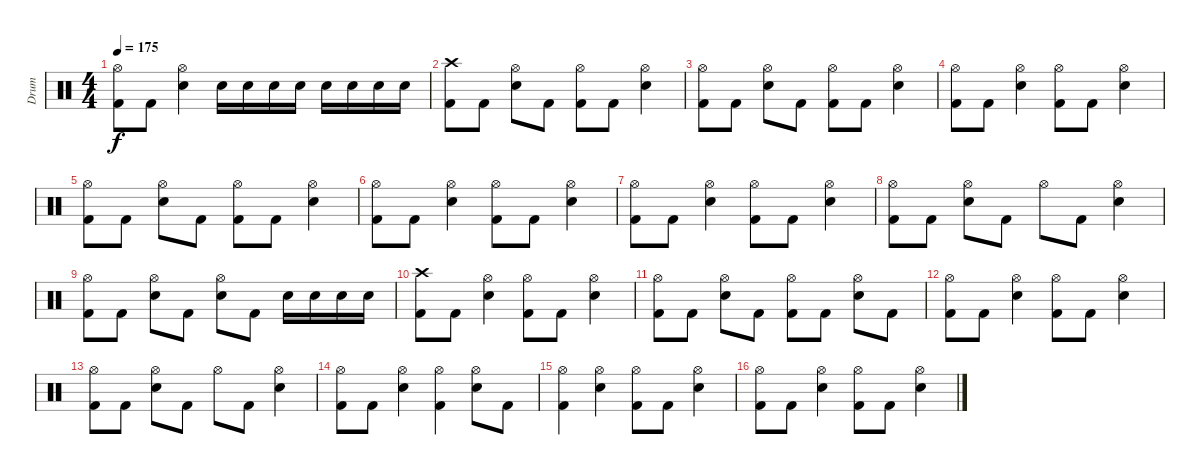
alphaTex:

\track ("Drum" "Drum") {instrument percussion}
\staff {score}
\articulation defaults
\ts (4 4)
\tempo 175
\clef neutral
\ks c
("Hi-Hat (open)" "Kick (hit) 2").8{dy f} "Kick (hit) 2".8 ("Hi-Hat (open)" "Electric Snare (hit)").4 "Electric Snare (hit)".16 "Electric Snare (hit)".16 "Electric Snare (hit)".16 "Electric Snare (hit)".16 "Electric Snare (hit)".16 "Electric Snare (hit)".16 "Electric Snare (hit)".16 "Electric Snare (hit)".16 |
("Crash high (hit)" "Kick (hit) 2").8 "Kick (hit) 2".8 ("Hi-Hat (open)" "Electric Snare (hit)").8 "Kick (hit) 2".8 ("Hi-Hat (open)" "Kick (hit) 2").8 "Kick (hit) 2".8 ("Hi-Hat (open)" "Electric Snare (hit)").4 |
("Hi-Hat (open)" "Kick (hit) 2").8 "Kick (hit) 2".8 ("Hi-Hat (open)" "Electric Snare (hit)").8 "Kick (hit) 2".8 ("Hi-Hat (open)" "Kick (hit) 2").8 "Kick (hit) 2".8 ("Hi-Hat (open)" "Electric Snare (hit)").4 |
("Hi-Hat (open)" "Kick (hit) 2").8 "Kick (hit) 2".8 ("Hi-Hat (open)" "Electric Snare (hit)").4 ("Hi-Hat (open)" "Kick (hit) 2").8 "Kick (hit) 2".8 ("Hi-Hat (open)" "Electric Snare (hit)").4 |
("Hi-Hat (open)" "Kick (hit) 2").8 "Kick (hit) 2".8 ("Hi-Hat (open)" "Electric Snare (hit)").8 "Kick (hit) 2".8 ("Hi-Hat (open)" "Kick (hit) 2").8 "Kick (hit) 2".8 ("Hi-Hat (open)" "Electric Snare (hit)").4 |
("Hi-Hat (open)" "Kick (hit) 2").8 "Kick (hit) 2".8 ("Hi-Hat (open)" "Electric Snare (hit)").4 ("Hi-Hat (open)" "Kick (hit) 2").8 "Kick (hit) 2".8 ("Hi-Hat (open)" "Electric Snare (hit)").4 |
("Hi-Hat (open)" "Kick (hit) 2").8 "Kick (hit) 2".8 ("Hi-Hat (open)" "Electric Snare (hit)").4 ("Hi-Hat (open)" "Kick (hit) 2").8 "Kick (hit) 2".8 ("Hi-Hat (open)" "Electric Snare (hit)").4 |
("Hi-Hat (open)" "Kick (hit) 2").8 "Kick (hit) 2".8 ("Hi-Hat (open)" "Electric Snare (hit)").8 "Kick (hit) 2".8 "Hi-Hat (open)".8 "Kick (hit) 2".8 ("Hi-Hat (open)" "Electric Snare (hit)").4 |
("Hi-Hat (open)" "Kick (hit) 2").8 "Kick (hit) 2".8 ("Hi-Hat (open)" "Electric Snare (hit)").8 "Kick (hit) 2".8 ("Hi-Hat (open)" "Electric Snare (hit)").8 "Kick (hit) 2".8 "Electric Snare (hit)".16 "Electric Snare (hit)".16 "Electric Snare (hit)".16 "Electric Snare (hit)".16 |
("Crash high (hit)" "Kick (hit) 2").8 "Kick (hit) 2".8 ("Hi-Hat (open)" "Electric Snare (hit)").4 ("Hi-Hat (open)" "Kick (hit) 2").8 "Kick (hit) 2".8 ("Hi-Hat (open)" "Electric Snare (hit)").4 |
("Hi-Hat (open)" "Kick (hit) 2").8 "Kick (hit) 2".8 ("Hi-Hat (open)" "Electric Snare (hit)").8 "Kick (hit) 2".8 ("Hi-Hat (open)" "Kick (hit) 2").8 "Kick (hit) 2".8 ("Hi-Hat (open)" "Electric Snare (hit)").8 "Kick (hit) 2".8 |
("Hi-Hat (open)" "Kick (hit) 2").8 "Kick (hit) 2".8 ("Hi-Hat (open)" "Electric Snare (hit)").4 ("Hi-Hat (open)" "Kick (hit) 2").8 "Kick (hit) 2".8 ("Hi-Hat (open)" "Electric Snare (hit)").4 |
("Hi-Hat (open)" "Kick (hit) 2").8 "Kick (hit) 2".8 ("Hi-Hat (open)" "Electric Snare (hit)").8 "Kick (hit) 2".8 "Hi-Hat (open)".8 "Kick (hit) 2".8 ("Hi-Hat (open)" "Electric Snare (hit)").4 |
("Hi-Hat (open)" "Kick (hit) 2").8 "Kick (hit) 2".8 ("Hi-Hat (open)" "Electric Snare (hit)").4 ("Hi-Hat (open)" "Kick (hit) 2").4 ("Hi-Hat (open)" "Electric Snare (hit)").8 "Kick (hit) 2".8 |
("Hi-Hat (open)" "Kick (hit) 2").4 ("Hi-Hat (open)" "Electric Snare (hit)").4 ("Hi-Hat (open)" "Kick (hit) 2").8 "Kick (hit) 2".8 ("Hi-Hat (open)" "Electric Snare (hit)").4 |
("Hi-Hat (open)" "Kick (hit) 2").8 "Kick (hit) 2".8 ("Hi-Hat (open)" "Electric Snare (hit)").4 ("Hi-Hat (open)" "Kick (hit) 2").8 "Kick (hit) 2".8 ("Hi-Hat (open)" "Electric Snare (hit)").4
